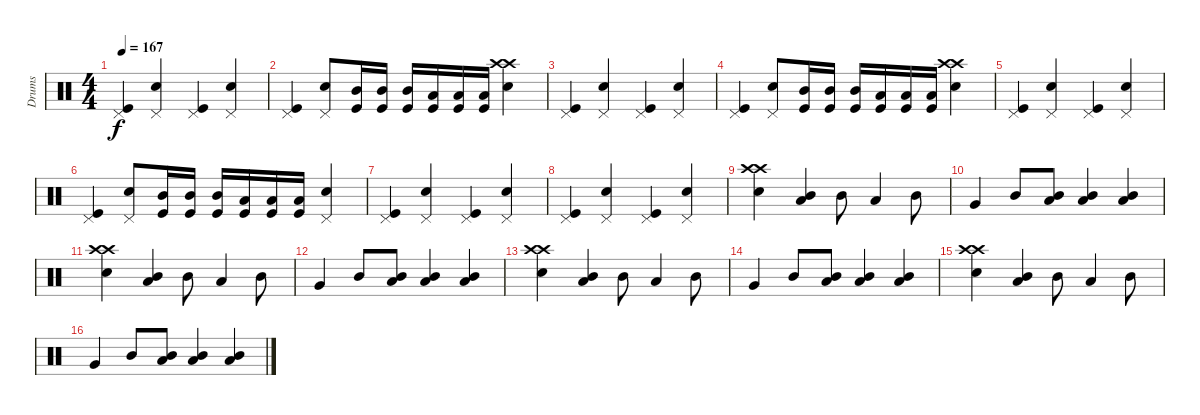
\track ("Drums" "Drums") {instrument percussion}
\staff {score}
\articulation defaults
\ts (4 4)
\tempo 167
\clef neutral
\ks c
("Pedal Hi-Hat (hit)" "Kick (hit)").4{dy f} ("Pedal Hi-Hat (hit)" "Snare (hit) 2").4 ("Pedal Hi-Hat (hit)" "Kick (hit)").4 ("Pedal Hi-Hat (hit)" "Snare (hit) 2").4 |
("Pedal Hi-Hat (hit)" "Kick (hit)").4 ("Pedal Hi-Hat (hit)" "Snare (hit) 2").8 ("Mid Tom (hit)" "Kick (hit)").16 ("Mid Tom (hit)" "Kick (hit)").16 ("Mid Tom (hit)" "Kick (hit)").16 ("Low Tom (hit)" "Kick (hit)").16 ("Low Tom (hit)" "Kick (hit)").16 ("Low Tom (hit)" "Kick (hit)").16 ("Crash high (hit)" "Crash high (hit)" "Snare (hit) 2").4 |
("Pedal Hi-Hat (hit)" "Kick (hit)").4 ("Pedal Hi-Hat (hit)" "Snare (hit) 2").4 ("Pedal Hi-Hat (hit)" "Kick (hit)").4 ("Pedal Hi-Hat (hit)" "Snare (hit) 2").4 |
("Pedal Hi-Hat (hit)" "Kick (hit)").4 ("Pedal Hi-Hat (hit)" "Snare (hit) 2").8 ("Mid Tom (hit)" "Kick (hit)").16 ("Mid Tom (hit)" "Kick (hit)").16 ("Mid Tom (hit)" "Kick (hit)").16 ("Low Tom (hit)" "Kick (hit)").16 ("Low Tom (hit)" "Kick (hit)").16 ("Low Tom (hit)" "Kick (hit)").16 ("Crash high (hit)" "Crash high (hit)" "Snare (hit) 2").4 |
("Pedal Hi-Hat (hit)" "Kick (hit)").4 ("Pedal Hi-Hat (hit)" "Snare (hit) 2").4 ("Pedal Hi-Hat (hit)" "Kick (hit)").4 ("Pedal Hi-Hat (hit)" "Snare (hit) 2").4 |
("Pedal Hi-Hat (hit)" "Kick (hit)").4 ("Pedal Hi-Hat (hit)" "Snare (hit) 2").8 ("Mid Tom (hit)" "Kick (hit)").16 ("Mid Tom (hit)" "Kick (hit)").16 ("Mid Tom (hit)" "Kick (hit)").16 ("Low Tom (hit)" "Kick (hit)").16 ("Low Tom (hit)" "Kick (hit)").16 ("Low Tom (hit)" "Kick (hit)").16 ("Pedal Hi-Hat (hit)" "Snare (hit) 2").4 |
("Pedal Hi-Hat (hit)" "Kick (hit)").4 ("Pedal Hi-Hat (hit)" "Snare (hit) 2").4 ("Pedal Hi-Hat (hit)" "Kick (hit)").4 ("Pedal Hi-Hat (hit)" "Snare (hit) 2").4 |
("Pedal Hi-Hat (hit)" "Kick (hit)").4 ("Pedal Hi-Hat (hit)" "Snare (hit) 2").4 ("Pedal Hi-Hat (hit)" "Kick (hit)").4 ("Pedal Hi-Hat (hit)" "Snare (hit) 2").4 |
("Crash high (hit)" "Crash high (hit)" "Snare (hit) 2").4 ("Low Tom (hit)" "Mid Tom (hit)").4 "Mid Tom (hit)".8 "Low Tom (hit)".4 "Mid Tom (hit)".8 |
"Very Low Tom (hit)".4 "Mid Tom (hit)".8 ("Mid Tom (hit)" "Low Tom (hit)").8 ("Mid Tom (hit)" "Low Tom (hit)").4 ("Mid Tom (hit)" "Low Tom (hit)").4 |
("Crash high (hit)" "Crash high (hit)" "Snare (hit) 2").4 ("Low Tom (hit)" "Mid Tom (hit)").4 "Mid Tom (hit)".8 "Low Tom (hit)".4 "Mid Tom (hit)".8 |
"Very Low Tom (hit)".4 "Mid Tom (hit)".8 ("Mid Tom (hit)" "Low Tom (hit)").8 ("Mid Tom (hit)" "Low Tom (hit)").4 ("Mid Tom (hit)" "Low Tom (hit)").4 |
("Crash high (hit)" "Crash high (hit)" "Snare (hit) 2").4 ("Low Tom (hit)" "Mid Tom (hit)").4 "Mid Tom (hit)".8 "Low Tom (hit)".4 "Mid Tom (hit)".8 |
"Very Low Tom (hit)".4 "Mid Tom (hit)".8 ("Mid Tom (hit)" "Low Tom (hit)").8 ("Mid Tom (hit)" "Low Tom (hit)").4 ("Mid Tom (hit)" "Low Tom (hit)").4 |
("Crash high (hit)" "Crash high (hit)" "Snare (hit) 2").4 ("Low Tom (hit)" "Mid Tom (hit)").4 "Mid Tom (hit)".8 "Low Tom (hit)".4 "Mid Tom (hit)".8 |
"Very Low Tom (hit)".4 "Mid Tom (hit)".8 ("Mid Tom (hit)" "Low Tom (hit)").8 ("Mid Tom (hit)" "Low Tom (hit)").4 ("Mid Tom (hit)" "Low Tom (hit)").4
